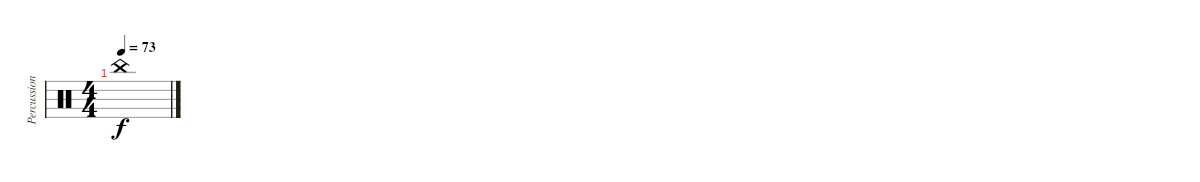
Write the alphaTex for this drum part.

\track ("Percussion" "Percussion") {instrument percussion}
\staff {score}
\articulation defaults
\ts (4 4)
\tempo 73
\clef neutral
\ks c "China (hit)".1{dy f}
